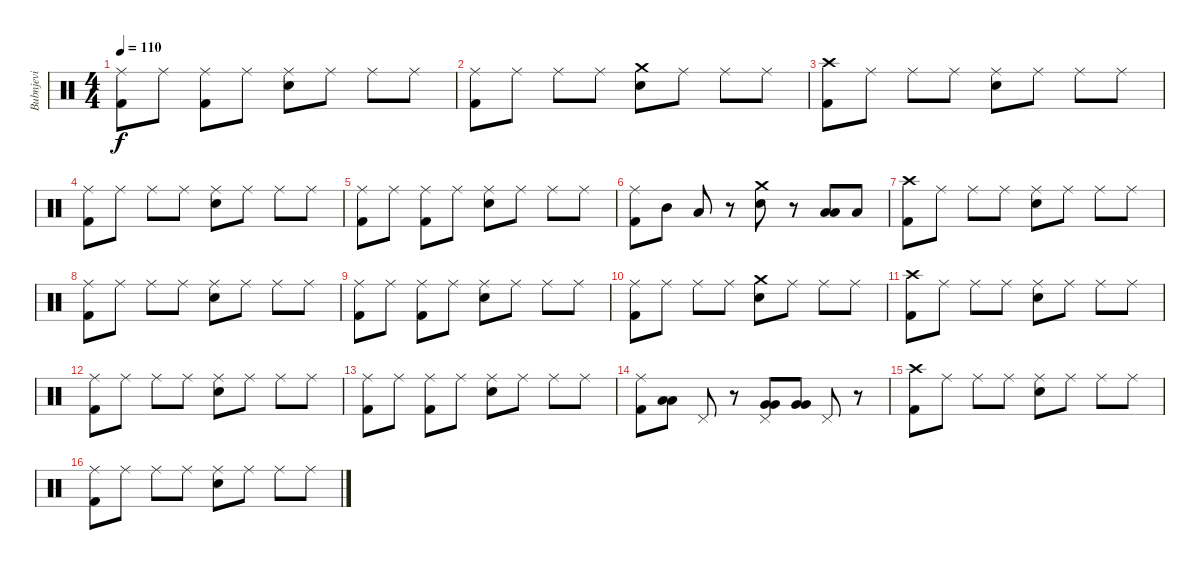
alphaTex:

\track ("Bubnjevi" "Bubnjevi") {instrument percussion}
\staff {score}
\articulation defaults
\ts (4 4)
\tempo 110
\clef neutral
\ks c
("Ride (middle)" "Kick (hit) 2").8{dy f} "Ride (middle)".8 ("Ride (middle)" "Kick (hit) 2").8 "Ride (middle)".8 ("Ride (middle)" "Electric Snare (hit)").8 "Ride (middle)".8 "Ride (middle)".8 "Ride (middle)".8 |
("Ride (middle)" "Kick (hit) 2").8 "Ride (middle)".8 "Ride (middle)".8 "Ride (middle)".8 ("Crash medium (hit)" "Electric Snare (hit)").8 "Ride (middle)".8 "Ride (middle)".8 "Ride (middle)".8 |
("Crash high (hit)" "Kick (hit) 2").8 "Ride (middle)".8 "Ride (middle)".8 "Ride (middle)".8 ("Ride (middle)" "Electric Snare (hit)").8 "Ride (middle)".8 "Ride (middle)".8 "Ride (middle)".8 |
("Ride (middle)" "Kick (hit) 2").8 "Ride (middle)".8 "Ride (middle)".8 "Ride (middle)".8 ("Ride (middle)" "Electric Snare (hit)").8 "Ride (middle)".8 "Ride (middle)".8 "Ride (middle)".8 |
("Ride (middle)" "Kick (hit) 2").8 "Ride (middle)".8 ("Ride (middle)" "Kick (hit) 2").8 "Ride (middle)".8 ("Ride (middle)" "Electric Snare (hit)").8 "Ride (middle)".8 "Ride (middle)".8 "Ride (middle)".8 |
("Ride (middle)" "Kick (hit) 2").8 "Mid Tom (hit)".8 "Low Tom (hit)".8 r.8 ("Crash medium (hit)" "Electric Snare (hit)").8 r.8 ("Low Tom (hit)" "Low Tom (hit)").8{bd 120} "Low Tom (hit)".8 |
("Crash high (hit)" "Kick (hit) 2").8 "Ride (middle)".8 "Ride (middle)".8 "Ride (middle)".8 ("Ride (middle)" "Electric Snare (hit)").8 "Ride (middle)".8 "Ride (middle)".8 "Ride (middle)".8 |
("Ride (middle)" "Kick (hit) 2").8 "Ride (middle)".8 "Ride (middle)".8 "Ride (middle)".8 ("Ride (middle)" "Electric Snare (hit)").8 "Ride (middle)".8 "Ride (middle)".8 "Ride (middle)".8 |
("Ride (middle)" "Kick (hit) 2").8 "Ride (middle)".8 ("Ride (middle)" "Kick (hit) 2").8 "Ride (middle)".8 ("Ride (middle)" "Electric Snare (hit)").8 "Ride (middle)".8 "Ride (middle)".8 "Ride (middle)".8 |
("Ride (middle)" "Kick (hit) 2").8 "Ride (middle)".8 "Ride (middle)".8 "Ride (middle)".8 ("Crash medium (hit)" "Electric Snare (hit)").8 "Ride (middle)".8 "Ride (middle)".8 "Ride (middle)".8 |
("Crash high (hit)" "Kick (hit) 2").8 "Ride (middle)".8 "Ride (middle)".8 "Ride (middle)".8 ("Ride (middle)" "Electric Snare (hit)").8 "Ride (middle)".8 "Ride (middle)".8 "Ride (middle)".8 |
("Ride (middle)" "Kick (hit) 2").8 "Ride (middle)".8 "Ride (middle)".8 "Ride (middle)".8 ("Ride (middle)" "Electric Snare (hit)").8 "Ride (middle)".8 "Ride (middle)".8 "Ride (middle)".8 |
("Ride (middle)" "Kick (hit) 2").8 "Ride (middle)".8 ("Ride (middle)" "Kick (hit) 2").8 "Ride (middle)".8 ("Ride (middle)" "Electric Snare (hit)").8 "Ride (middle)".8 "Ride (middle)".8 "Ride (middle)".8 |
("Ride (middle)" "Kick (hit) 2").8 ("Low Tom (hit)" "Low Tom (hit)").8{bd 120} "Pedal Hi-Hat (hit)".8 r.8 ("Pedal Hi-Hat (hit)" "Very Low Tom (hit)" "Very Low Tom (hit)").8{bd 60} ("Very Low Tom (hit)" "Very Low Tom (hit)").8{bd 60} "Pedal Hi-Hat (hit)".8 r.8 |
("Crash high (hit)" "Kick (hit) 2").8 "Ride (middle)".8 "Ride (middle)".8 "Ride (middle)".8 ("Ride (middle)" "Electric Snare (hit)").8 "Ride (middle)".8 "Ride (middle)".8 "Ride (middle)".8 |
("Ride (middle)" "Kick (hit) 2").8 "Ride (middle)".8 "Ride (middle)".8 "Ride (middle)".8 ("Ride (middle)" "Electric Snare (hit)").8 "Ride (middle)".8 "Ride (middle)".8 "Ride (middle)".8
